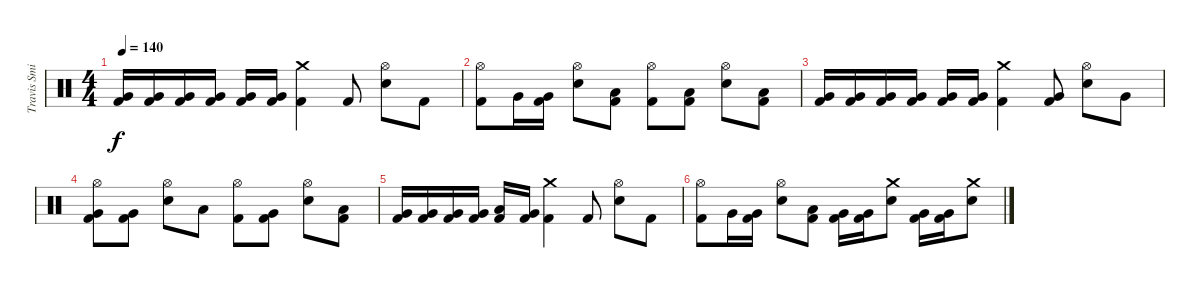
\track ("Travis Smith" "Travis Smi") {instrument percussion}
\staff {score}
\articulation defaults
\ts (4 4)
\tempo 140
\clef neutral
\ks c
("Very Low Tom (hit)" "Kick (hit) 2").16{dy f} ("Very Low Tom (hit)" "Kick (hit) 2").16 ("Very Low Tom (hit)" "Kick (hit) 2").16 ("Very Low Tom (hit)" "Kick (hit) 2").16 ("Very Low Tom (hit)" "Kick (hit) 2").16 ("Very Low Tom (hit)" "Kick (hit) 2").16 ("Crash medium (hit)" "Kick (hit) 2").4 "Kick (hit) 2".8 ("Hi-Hat (open)" "Electric Snare (hit)").8 "Kick (hit) 2".8 |
("Hi-Hat (open)" "Kick (hit) 2").8 "Very Low Tom (hit)".16 ("Very Low Tom (hit)" "Kick (hit) 2").16 ("Hi-Hat (open)" "Electric Snare (hit)").8 ("Low Floor Tom (hit)" "Kick (hit) 2").8 ("Hi-Hat (open)" "Kick (hit) 2").8 ("Low Floor Tom (hit)" "Kick (hit) 2").8 ("Hi-Hat (open)" "Electric Snare (hit)").8 ("Low Floor Tom (hit)" "Kick (hit) 2").8 |
("Very Low Tom (hit)" "Kick (hit) 2").16{volume 0} ("Very Low Tom (hit)" "Kick (hit) 2").16 ("Very Low Tom (hit)" "Kick (hit) 2").16 ("Very Low Tom (hit)" "Kick (hit) 2").16 ("Very Low Tom (hit)" "Kick (hit) 2").16 ("Very Low Tom (hit)" "Kick (hit) 2").16 ("Crash medium (hit)" "Kick (hit) 2").4 ("Very Low Tom (hit)" "Kick (hit) 2").8 ("Hi-Hat (open)" "Electric Snare (hit)").8 "Very Low Tom (hit)".8 |
("Hi-Hat (open)" "Very Low Tom (hit)" "Kick (hit) 2").8 ("Very Low Tom (hit)" "Kick (hit) 2").8 ("Hi-Hat (open)" "Electric Snare (hit)").8 "Low Floor Tom (hit)".8 ("Hi-Hat (open)" "Kick (hit) 2").8 ("Very Low Tom (hit)" "Kick (hit) 2").8 ("Hi-Hat (open)" "Electric Snare (hit)").8 ("Low Tom (hit)" "Kick (hit) 2").8 |
("Very Low Tom (hit)" "Kick (hit) 2").16 ("Very Low Tom (hit)" "Kick (hit) 2").16 ("Very Low Tom (hit)" "Kick (hit) 2").16 ("Very Low Tom (hit)" "Kick (hit) 2").16 ("Low Tom (hit)" "Kick (hit) 2").16 ("Very Low Tom (hit)" "Kick (hit) 2").16 ("Crash medium (hit)" "Kick (hit) 2").4 "Kick (hit) 2".8 ("Hi-Hat (open)" "Electric Snare (hit)").8 "Kick (hit) 2".8 |
("Hi-Hat (open)" "Kick (hit) 2").8 "Very Low Tom (hit)".16 ("Very Low Tom (hit)" "Kick (hit) 2").16 ("Hi-Hat (open)" "Electric Snare (hit)").8 ("Low Floor Tom (hit)" "Kick (hit) 2").8 ("Very Low Tom (hit)" "Kick (hit) 2").16 ("Very Low Tom (hit)" "Kick (hit) 2").16 ("Crash medium (hit)" "Electric Snare (hit)").8 ("Very Low Tom (hit)" "Kick (hit) 2").16 ("Very Low Tom (hit)" "Kick (hit) 2").16 ("Crash medium (hit)" "Electric Snare (hit)").8
